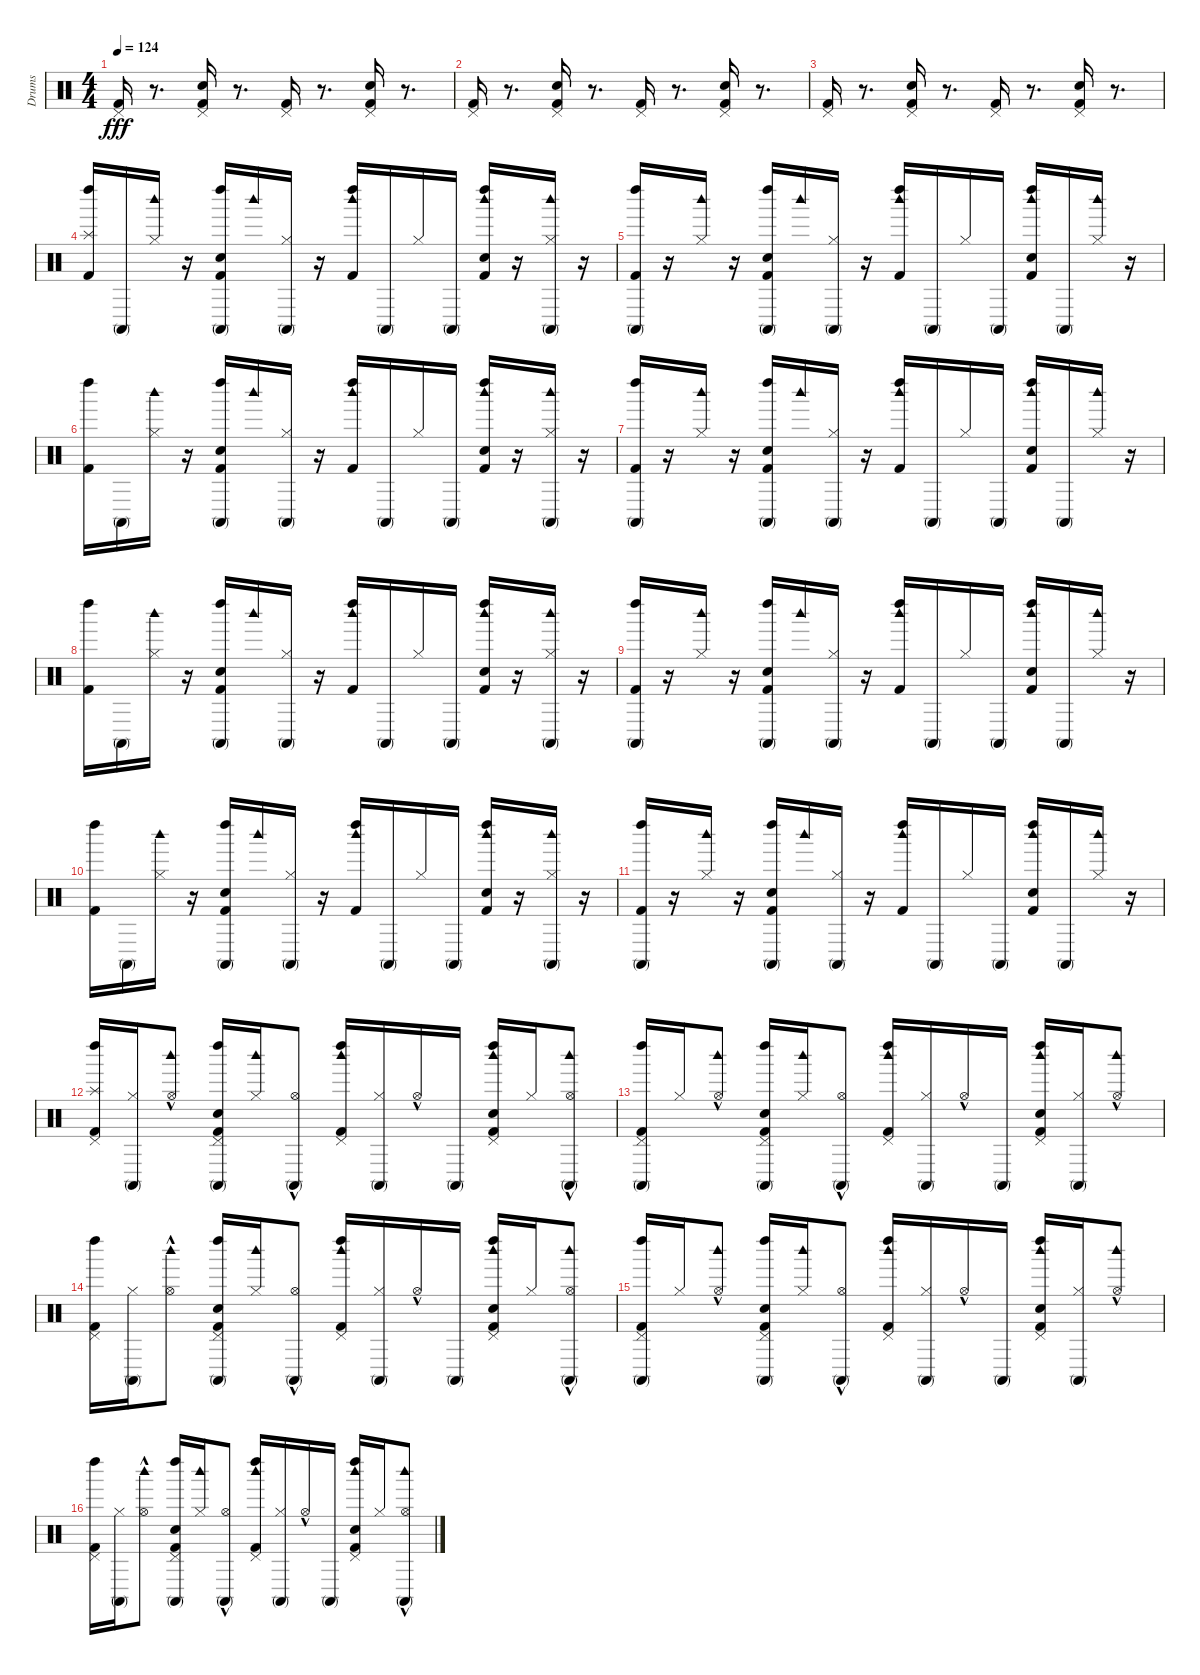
\track ("Drums" "Drums") {instrument percussion}
\staff {score}
\articulation defaults
\ts (4 4)
\tempo 124
\clef neutral
\ks c
("Pedal Hi-Hat (hit)" "Kick (hit) 2").16{dy fff} r.8{d} ("Electric Snare (hit)" "Pedal Hi-Hat (hit)" "Kick (hit) 2").16 r.8{d} ("Pedal Hi-Hat (hit)" "Kick (hit) 2").16 r.8{d} ("Electric Snare (hit)" "Pedal Hi-Hat (hit)" "Kick (hit) 2").16 r.8{d} |
("Pedal Hi-Hat (hit)" "Kick (hit) 2").16 r.8{d} ("Electric Snare (hit)" "Pedal Hi-Hat (hit)" "Kick (hit) 2").16 r.8{d} ("Pedal Hi-Hat (hit)" "Kick (hit) 2").16 r.8{d} ("Electric Snare (hit)" "Pedal Hi-Hat (hit)" "Kick (hit) 2").16 r.8{d} |
("Pedal Hi-Hat (hit)" "Kick (hit) 2").16 r.8{d} ("Electric Snare (hit)" "Pedal Hi-Hat (hit)" "Kick (hit) 2").16 r.8{d} ("Pedal Hi-Hat (hit)" "Kick (hit) 2").16 r.8{d} ("Electric Snare (hit)" "Pedal Hi-Hat (hit)" "Kick (hit) 2").16 r.8{d} |
("Left Maraca (hit)" "Splash (hit)" "Kick (hit) 2").16 "Conga high (mute)".16 ("Woodblock high (hit)" "Hi-Hat (closed)").16 r.16 ("Left Maraca (hit)" "Conga high (mute)" "Electric Snare (hit)" "Kick (hit) 2").16 "Woodblock high (hit)".16 ("Conga high (mute)" "Hi-Hat (closed)").16 r.16 ("Left Maraca (hit)" "Woodblock high (hit)" "Kick (hit) 2").16 "Conga high (mute)".16 "Hi-Hat (closed)".16 "Conga high (mute)".16 ("Left Maraca (hit)" "Woodblock high (hit)" "Electric Snare (hit)" "Kick (hit) 2").16 r.16 ("Woodblock high (hit)" "Conga high (mute)" "Hi-Hat (closed)").16 r.16 |
("Left Maraca (hit)" "Conga high (mute)" "Kick (hit) 2").16 r.16 ("Woodblock high (hit)" "Hi-Hat (closed)").16 r.16 ("Left Maraca (hit)" "Conga high (mute)" "Electric Snare (hit)" "Kick (hit) 2").16 "Woodblock high (hit)".16 ("Conga high (mute)" "Hi-Hat (closed)").16 r.16 ("Left Maraca (hit)" "Woodblock high (hit)" "Kick (hit) 2").16 "Conga high (mute)".16 "Hi-Hat (closed)".16 "Conga high (mute)".16 ("Left Maraca (hit)" "Woodblock high (hit)" "Electric Snare (hit)" "Kick (hit) 2").16 "Conga high (mute)".16 ("Woodblock high (hit)" "Hi-Hat (closed)").16 r.16 |
("Left Maraca (hit)" "Kick (hit) 2").16 "Conga high (mute)".16 ("Woodblock high (hit)" "Hi-Hat (closed)").16 r.16 ("Left Maraca (hit)" "Conga high (mute)" "Electric Snare (hit)" "Kick (hit) 2").16 "Woodblock high (hit)".16 ("Conga high (mute)" "Hi-Hat (closed)").16 r.16 ("Left Maraca (hit)" "Woodblock high (hit)" "Kick (hit) 2").16 "Conga high (mute)".16 "Hi-Hat (closed)".16 "Conga high (mute)".16 ("Left Maraca (hit)" "Woodblock high (hit)" "Electric Snare (hit)" "Kick (hit) 2").16 r.16 ("Woodblock high (hit)" "Conga high (mute)" "Hi-Hat (closed)").16 r.16 |
("Left Maraca (hit)" "Conga high (mute)" "Kick (hit) 2").16 r.16 ("Woodblock high (hit)" "Hi-Hat (closed)").16 r.16 ("Left Maraca (hit)" "Conga high (mute)" "Electric Snare (hit)" "Kick (hit) 2").16 "Woodblock high (hit)".16 ("Conga high (mute)" "Hi-Hat (closed)").16 r.16 ("Left Maraca (hit)" "Woodblock high (hit)" "Kick (hit) 2").16 "Conga high (mute)".16 "Hi-Hat (closed)".16 "Conga high (mute)".16 ("Left Maraca (hit)" "Woodblock high (hit)" "Electric Snare (hit)" "Kick (hit) 2").16 "Conga high (mute)".16 ("Woodblock high (hit)" "Hi-Hat (closed)").16 r.16 |
("Left Maraca (hit)" "Kick (hit) 2").16 "Conga high (mute)".16 ("Woodblock high (hit)" "Hi-Hat (closed)").16 r.16 ("Conga high (mute)" "Left Maraca (hit)" "Electric Snare (hit)" "Kick (hit) 2").16 "Woodblock high (hit)".16 ("Conga high (mute)" "Hi-Hat (closed)").16 r.16 ("Woodblock high (hit)" "Left Maraca (hit)" "Kick (hit) 2").16 "Conga high (mute)".16 "Hi-Hat (closed)".16 "Conga high (mute)".16 ("Woodblock high (hit)" "Left Maraca (hit)" "Electric Snare (hit)" "Kick (hit) 2").16 r.16 ("Conga high (mute)" "Woodblock high (hit)" "Hi-Hat (closed)").16 r.16 |
("Conga high (mute)" "Left Maraca (hit)" "Kick (hit) 2").16 r.16 ("Woodblock high (hit)" "Hi-Hat (closed)").16 r.16 ("Conga high (mute)" "Left Maraca (hit)" "Electric Snare (hit)" "Kick (hit) 2").16 "Woodblock high (hit)".16 ("Conga high (mute)" "Hi-Hat (closed)").16 r.16 ("Woodblock high (hit)" "Left Maraca (hit)" "Kick (hit) 2").16 "Conga high (mute)".16 "Hi-Hat (closed)".16 "Conga high (mute)".16 ("Woodblock high (hit)" "Left Maraca (hit)" "Electric Snare (hit)" "Kick (hit) 2").16 "Conga high (mute)".16 ("Woodblock high (hit)" "Hi-Hat (closed)").16 r.16 |
("Left Maraca (hit)" "Kick (hit) 2").16 "Conga high (mute)".16 ("Woodblock high (hit)" "Hi-Hat (closed)").16 r.16 ("Conga high (mute)" "Left Maraca (hit)" "Electric Snare (hit)" "Kick (hit) 2").16 "Woodblock high (hit)".16 ("Conga high (mute)" "Hi-Hat (closed)").16 r.16 ("Woodblock high (hit)" "Left Maraca (hit)" "Kick (hit) 2").16 "Conga high (mute)".16 "Hi-Hat (closed)".16 "Conga high (mute)".16 ("Woodblock high (hit)" "Left Maraca (hit)" "Electric Snare (hit)" "Kick (hit) 2").16 r.16 ("Conga high (mute)" "Woodblock high (hit)" "Hi-Hat (closed)").16 r.16 |
("Conga high (mute)" "Left Maraca (hit)" "Kick (hit) 2").16 r.16 ("Woodblock high (hit)" "Hi-Hat (closed)").16 r.16 ("Conga high (mute)" "Left Maraca (hit)" "Electric Snare (hit)" "Kick (hit) 2").16 "Woodblock high (hit)".16 ("Conga high (mute)" "Hi-Hat (closed)").16 r.16 ("Woodblock high (hit)" "Left Maraca (hit)" "Kick (hit) 2").16 "Conga high (mute)".16 "Hi-Hat (closed)".16 "Conga high (mute)".16 ("Woodblock high (hit)" "Left Maraca (hit)" "Electric Snare (hit)" "Kick (hit) 2").16 "Conga high (mute)".16 ("Woodblock high (hit)" "Hi-Hat (closed)").16 r.16 |
("Splash (hit)" "Pedal Hi-Hat (hit)" "Kick (hit) 2" "Left Maraca (hit)").16 ("Hi-Hat (closed)" "Conga high (mute)").16 ("Hi-Hat (open)"{hac} "Woodblock high (hit)").8 ("Electric Snare (hit)" "Pedal Hi-Hat (hit)" "Kick (hit) 2" "Conga high (mute)" "Left Maraca (hit)").16 ("Hi-Hat (closed)" "Woodblock high (hit)").16 ("Hi-Hat (open)"{hac} "Conga high (mute)").8 ("Pedal Hi-Hat (hit)" "Kick (hit) 2" "Woodblock high (hit)" "Left Maraca (hit)").16 ("Hi-Hat (closed)" "Conga high (mute)").16 "Hi-Hat (open)"{hac}.16 "Conga high (mute)".16 ("Electric Snare (hit)" "Pedal Hi-Hat (hit)" "Kick (hit) 2" "Woodblock high (hit)" "Left Maraca (hit)").16 "Hi-Hat (closed)".16 ("Hi-Hat (open)"{hac} "Conga high (mute)" "Woodblock high (hit)").8 |
("Pedal Hi-Hat (hit)" "Kick (hit) 2" "Conga high (mute)" "Left Maraca (hit)").16 "Hi-Hat (closed)".16 ("Hi-Hat (open)"{hac} "Woodblock high (hit)").8 ("Electric Snare (hit)" "Pedal Hi-Hat (hit)" "Kick (hit) 2" "Conga high (mute)" "Left Maraca (hit)").16 ("Hi-Hat (closed)" "Woodblock high (hit)").16 ("Hi-Hat (open)"{hac} "Conga high (mute)").8 ("Pedal Hi-Hat (hit)" "Kick (hit) 2" "Woodblock high (hit)" "Left Maraca (hit)").16 ("Hi-Hat (closed)" "Conga high (mute)").16 "Hi-Hat (open)"{hac}.16 "Conga high (mute)".16 ("Electric Snare (hit)" "Pedal Hi-Hat (hit)" "Kick (hit) 2" "Woodblock high (hit)" "Left Maraca (hit)").16 ("Hi-Hat (closed)" "Conga high (mute)").16 ("Hi-Hat (open)"{hac} "Woodblock high (hit)").8 |
("Pedal Hi-Hat (hit)" "Kick (hit) 2" "Left Maraca (hit)").16 ("Hi-Hat (closed)" "Conga high (mute)").16 ("Hi-Hat (open)"{hac} "Woodblock high (hit)").8 ("Electric Snare (hit)" "Pedal Hi-Hat (hit)" "Kick (hit) 2" "Conga high (mute)" "Left Maraca (hit)").16 ("Hi-Hat (closed)" "Woodblock high (hit)").16 ("Hi-Hat (open)"{hac} "Conga high (mute)").8 ("Pedal Hi-Hat (hit)" "Kick (hit) 2" "Woodblock high (hit)" "Left Maraca (hit)").16 ("Hi-Hat (closed)" "Conga high (mute)").16 "Hi-Hat (open)"{hac}.16 "Conga high (mute)".16 ("Electric Snare (hit)" "Pedal Hi-Hat (hit)" "Kick (hit) 2" "Woodblock high (hit)" "Left Maraca (hit)").16 "Hi-Hat (closed)".16 ("Hi-Hat (open)"{hac} "Conga high (mute)" "Woodblock high (hit)").8 |
("Pedal Hi-Hat (hit)" "Kick (hit) 2" "Conga high (mute)" "Left Maraca (hit)").16 "Hi-Hat (closed)".16 ("Hi-Hat (open)"{hac} "Woodblock high (hit)").8 ("Electric Snare (hit)" "Pedal Hi-Hat (hit)" "Kick (hit) 2" "Conga high (mute)" "Left Maraca (hit)").16 ("Hi-Hat (closed)" "Woodblock high (hit)").16 ("Hi-Hat (open)"{hac} "Conga high (mute)").8 ("Pedal Hi-Hat (hit)" "Kick (hit) 2" "Woodblock high (hit)" "Left Maraca (hit)").16 ("Hi-Hat (closed)" "Conga high (mute)").16 "Hi-Hat (open)"{hac}.16 "Conga high (mute)".16 ("Electric Snare (hit)" "Pedal Hi-Hat (hit)" "Kick (hit) 2" "Woodblock high (hit)" "Left Maraca (hit)").16 ("Hi-Hat (closed)" "Conga high (mute)").16 ("Hi-Hat (open)"{hac} "Woodblock high (hit)").8 |
("Pedal Hi-Hat (hit)" "Kick (hit) 2" "Left Maraca (hit)").16 ("Hi-Hat (closed)" "Conga high (mute)").16 ("Hi-Hat (open)"{hac} "Woodblock high (hit)").8 ("Electric Snare (hit)" "Pedal Hi-Hat (hit)" "Kick (hit) 2" "Conga high (mute)" "Left Maraca (hit)").16 ("Hi-Hat (closed)" "Woodblock high (hit)").16 ("Hi-Hat (open)"{hac} "Conga high (mute)").8 ("Pedal Hi-Hat (hit)" "Kick (hit) 2" "Woodblock high (hit)" "Left Maraca (hit)").16 ("Hi-Hat (closed)" "Conga high (mute)").16 "Hi-Hat (open)"{hac}.16 "Conga high (mute)".16 ("Electric Snare (hit)" "Pedal Hi-Hat (hit)" "Kick (hit) 2" "Woodblock high (hit)" "Left Maraca (hit)").16 "Hi-Hat (closed)".16 ("Hi-Hat (open)"{hac} "Conga high (mute)" "Woodblock high (hit)").8
